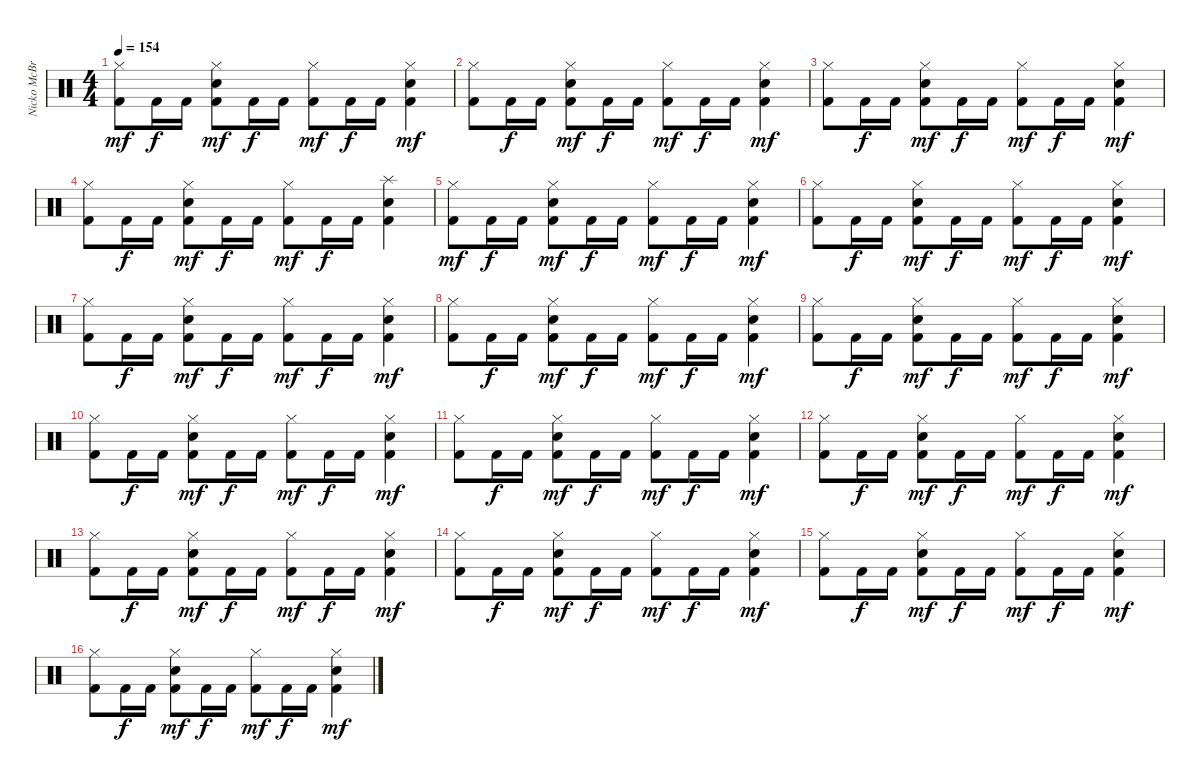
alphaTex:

\track ("Nicko McBrain" "Nicko McBr") {instrument percussion}
\staff {score}
\articulation defaults
\ts (4 4)
\tempo 154
\clef neutral
\ks c
("Hi-Hat (closed)" "Kick (hit) 2").8{dy mf} "Kick (hit) 2".16{dy f} "Kick (hit) 2".16 ("Hi-Hat (closed)" "Kick (hit) 2" "Electric Snare (hit)").8{dy mf} "Kick (hit) 2".16{dy f} "Kick (hit) 2".16 ("Hi-Hat (closed)" "Kick (hit) 2").8{dy mf} "Kick (hit) 2".16{dy f} "Kick (hit) 2".16 ("Hi-Hat (closed)" "Kick (hit) 2" "Electric Snare (hit)").4{dy mf} |
("Hi-Hat (closed)" "Kick (hit) 2").8 "Kick (hit) 2".16{dy f} "Kick (hit) 2".16 ("Hi-Hat (closed)" "Kick (hit) 2" "Electric Snare (hit)").8{dy mf} "Kick (hit) 2".16{dy f} "Kick (hit) 2".16 ("Hi-Hat (closed)" "Kick (hit) 2").8{dy mf} "Kick (hit) 2".16{dy f} "Kick (hit) 2".16 ("Hi-Hat (closed)" "Kick (hit) 2" "Electric Snare (hit)").4{dy mf} |
("Hi-Hat (closed)" "Kick (hit) 2").8 "Kick (hit) 2".16{dy f} "Kick (hit) 2".16 ("Hi-Hat (closed)" "Kick (hit) 2" "Electric Snare (hit)").8{dy mf} "Kick (hit) 2".16{dy f} "Kick (hit) 2".16 ("Hi-Hat (closed)" "Kick (hit) 2").8{dy mf} "Kick (hit) 2".16{dy f} "Kick (hit) 2".16 ("Hi-Hat (closed)" "Kick (hit) 2" "Electric Snare (hit)").4{dy mf} |
("Hi-Hat (closed)" "Kick (hit) 2").8 "Kick (hit) 2".16{dy f} "Kick (hit) 2".16 ("Hi-Hat (closed)" "Kick (hit) 2" "Electric Snare (hit)").8{dy mf} "Kick (hit) 2".16{dy f} "Kick (hit) 2".16 ("Hi-Hat (closed)" "Kick (hit) 2").8{dy mf} "Kick (hit) 2".16{dy f} "Kick (hit) 2".16 ("Splash (hit)" "Kick (hit) 2" "Electric Snare (hit)").4 |
("Hi-Hat (closed)" "Kick (hit) 2").8{dy mf} "Kick (hit) 2".16{dy f} "Kick (hit) 2".16 ("Hi-Hat (closed)" "Kick (hit) 2" "Electric Snare (hit)").8{dy mf} "Kick (hit) 2".16{dy f} "Kick (hit) 2".16 ("Hi-Hat (closed)" "Kick (hit) 2").8{dy mf} "Kick (hit) 2".16{dy f} "Kick (hit) 2".16 ("Hi-Hat (closed)" "Kick (hit) 2" "Electric Snare (hit)").4{dy mf} |
("Hi-Hat (closed)" "Kick (hit) 2").8 "Kick (hit) 2".16{dy f} "Kick (hit) 2".16 ("Hi-Hat (closed)" "Kick (hit) 2" "Electric Snare (hit)").8{dy mf} "Kick (hit) 2".16{dy f} "Kick (hit) 2".16 ("Hi-Hat (closed)" "Kick (hit) 2").8{dy mf} "Kick (hit) 2".16{dy f} "Kick (hit) 2".16 ("Hi-Hat (closed)" "Kick (hit) 2" "Electric Snare (hit)").4{dy mf} |
("Hi-Hat (closed)" "Kick (hit) 2").8 "Kick (hit) 2".16{dy f} "Kick (hit) 2".16 ("Hi-Hat (closed)" "Kick (hit) 2" "Electric Snare (hit)").8{dy mf} "Kick (hit) 2".16{dy f} "Kick (hit) 2".16 ("Hi-Hat (closed)" "Kick (hit) 2").8{dy mf} "Kick (hit) 2".16{dy f} "Kick (hit) 2".16 ("Hi-Hat (closed)" "Kick (hit) 2" "Electric Snare (hit)").4{dy mf} |
("Hi-Hat (closed)" "Kick (hit) 2").8 "Kick (hit) 2".16{dy f} "Kick (hit) 2".16 ("Hi-Hat (closed)" "Kick (hit) 2" "Electric Snare (hit)").8{dy mf} "Kick (hit) 2".16{dy f} "Kick (hit) 2".16 ("Hi-Hat (closed)" "Kick (hit) 2").8{dy mf} "Kick (hit) 2".16{dy f} "Kick (hit) 2".16 ("Hi-Hat (closed)" "Kick (hit) 2" "Electric Snare (hit)").4{dy mf} |
("Hi-Hat (closed)" "Kick (hit) 2").8 "Kick (hit) 2".16{dy f} "Kick (hit) 2".16 ("Hi-Hat (closed)" "Kick (hit) 2" "Electric Snare (hit)").8{dy mf} "Kick (hit) 2".16{dy f} "Kick (hit) 2".16 ("Hi-Hat (closed)" "Kick (hit) 2").8{dy mf} "Kick (hit) 2".16{dy f} "Kick (hit) 2".16 ("Hi-Hat (closed)" "Kick (hit) 2" "Electric Snare (hit)").4{dy mf} |
("Hi-Hat (closed)" "Kick (hit) 2").8 "Kick (hit) 2".16{dy f} "Kick (hit) 2".16 ("Hi-Hat (closed)" "Kick (hit) 2" "Electric Snare (hit)").8{dy mf} "Kick (hit) 2".16{dy f} "Kick (hit) 2".16 ("Hi-Hat (closed)" "Kick (hit) 2").8{dy mf} "Kick (hit) 2".16{dy f} "Kick (hit) 2".16 ("Hi-Hat (closed)" "Kick (hit) 2" "Electric Snare (hit)").4{dy mf} |
("Hi-Hat (closed)" "Kick (hit) 2").8 "Kick (hit) 2".16{dy f} "Kick (hit) 2".16 ("Hi-Hat (closed)" "Kick (hit) 2" "Electric Snare (hit)").8{dy mf} "Kick (hit) 2".16{dy f} "Kick (hit) 2".16 ("Hi-Hat (closed)" "Kick (hit) 2").8{dy mf} "Kick (hit) 2".16{dy f} "Kick (hit) 2".16 ("Hi-Hat (closed)" "Kick (hit) 2" "Electric Snare (hit)").4{dy mf} |
("Hi-Hat (closed)" "Kick (hit) 2").8 "Kick (hit) 2".16{dy f} "Kick (hit) 2".16 ("Hi-Hat (closed)" "Kick (hit) 2" "Electric Snare (hit)").8{dy mf} "Kick (hit) 2".16{dy f} "Kick (hit) 2".16 ("Hi-Hat (closed)" "Kick (hit) 2").8{dy mf} "Kick (hit) 2".16{dy f} "Kick (hit) 2".16 ("Hi-Hat (closed)" "Kick (hit) 2" "Electric Snare (hit)").4{dy mf} |
("Hi-Hat (closed)" "Kick (hit) 2").8 "Kick (hit) 2".16{dy f} "Kick (hit) 2".16 ("Hi-Hat (closed)" "Kick (hit) 2" "Electric Snare (hit)").8{dy mf} "Kick (hit) 2".16{dy f} "Kick (hit) 2".16 ("Hi-Hat (closed)" "Kick (hit) 2").8{dy mf} "Kick (hit) 2".16{dy f} "Kick (hit) 2".16 ("Hi-Hat (closed)" "Kick (hit) 2" "Electric Snare (hit)").4{dy mf} |
("Hi-Hat (closed)" "Kick (hit) 2").8 "Kick (hit) 2".16{dy f} "Kick (hit) 2".16 ("Hi-Hat (closed)" "Kick (hit) 2" "Electric Snare (hit)").8{dy mf} "Kick (hit) 2".16{dy f} "Kick (hit) 2".16 ("Hi-Hat (closed)" "Kick (hit) 2").8{dy mf} "Kick (hit) 2".16{dy f} "Kick (hit) 2".16 ("Hi-Hat (closed)" "Kick (hit) 2" "Electric Snare (hit)").4{dy mf} |
("Hi-Hat (closed)" "Kick (hit) 2").8 "Kick (hit) 2".16{dy f} "Kick (hit) 2".16 ("Hi-Hat (closed)" "Kick (hit) 2" "Electric Snare (hit)").8{dy mf} "Kick (hit) 2".16{dy f} "Kick (hit) 2".16 ("Hi-Hat (closed)" "Kick (hit) 2").8{dy mf} "Kick (hit) 2".16{dy f} "Kick (hit) 2".16 ("Hi-Hat (closed)" "Kick (hit) 2" "Electric Snare (hit)").4{dy mf} |
("Hi-Hat (closed)" "Kick (hit) 2").8 "Kick (hit) 2".16{dy f} "Kick (hit) 2".16 ("Hi-Hat (closed)" "Kick (hit) 2" "Electric Snare (hit)").8{dy mf} "Kick (hit) 2".16{dy f} "Kick (hit) 2".16 ("Hi-Hat (closed)" "Kick (hit) 2").8{dy mf} "Kick (hit) 2".16{dy f} "Kick (hit) 2".16 ("Hi-Hat (closed)" "Kick (hit) 2" "Electric Snare (hit)").4{dy mf}
